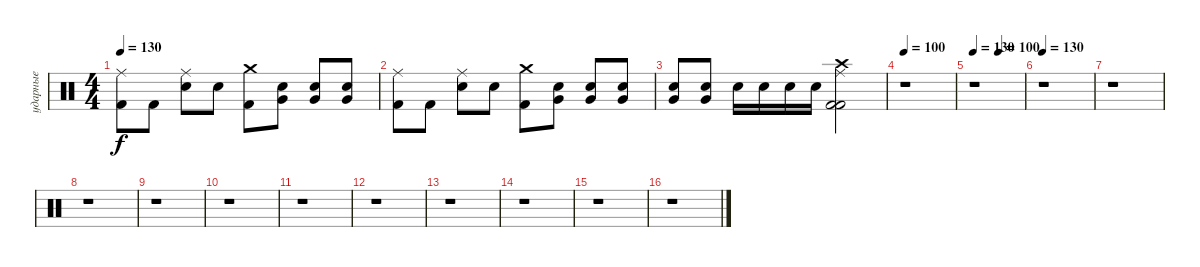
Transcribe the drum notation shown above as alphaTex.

\track ("ударные" "ударные") {instrument percussion}
\staff {score}
\articulation defaults
\ts (4 4)
\tempo 130
\clef neutral
\ks c
("Kick (hit) 2" "Ride (middle)").8{dy f} "Kick (hit) 2".8 ("Ride (middle)" "Electric Snare (hit)").8 "Electric Snare (hit)".8 ("Kick (hit) 2" "Crash medium (hit)").8 ("Electric Snare (hit)" "Very Low Tom (hit)").8 ("Very Low Tom (hit)" "Electric Snare (hit)").8 ("Electric Snare (hit)" "Very Low Tom (hit)").8 |
("Kick (hit) 2" "Ride (middle)").8 "Kick (hit) 2".8 ("Ride (middle)" "Electric Snare (hit)").8 "Electric Snare (hit)".8 ("Kick (hit) 2" "Crash medium (hit)").8 ("Electric Snare (hit)" "Very Low Tom (hit)").8 ("Very Low Tom (hit)" "Electric Snare (hit)").8 ("Electric Snare (hit)" "Very Low Tom (hit)").8 |
("Electric Snare (hit)" "Very Low Tom (hit)").8 ("Very Low Tom (hit)" "Electric Snare (hit)").8 "Electric Snare (hit)".16 "Electric Snare (hit)".16 "Electric Snare (hit)".16 "Electric Snare (hit)".16 ("Kick (hit) 2" "Ride (middle)" "Kick (hit) 2" "Crash high (hit)").2 |
\tempo 118
\tempo 100
r.1 |
\tempo 106
\tempo (100 0.5)
\tempo 130
r.1 |
\tempo 130
r.1 |
r.1 |
r.1 |
r.1 |
r.1 |
r.1 |
r.1 |
r.1 |
r.1 |
r.1 |
r.1
